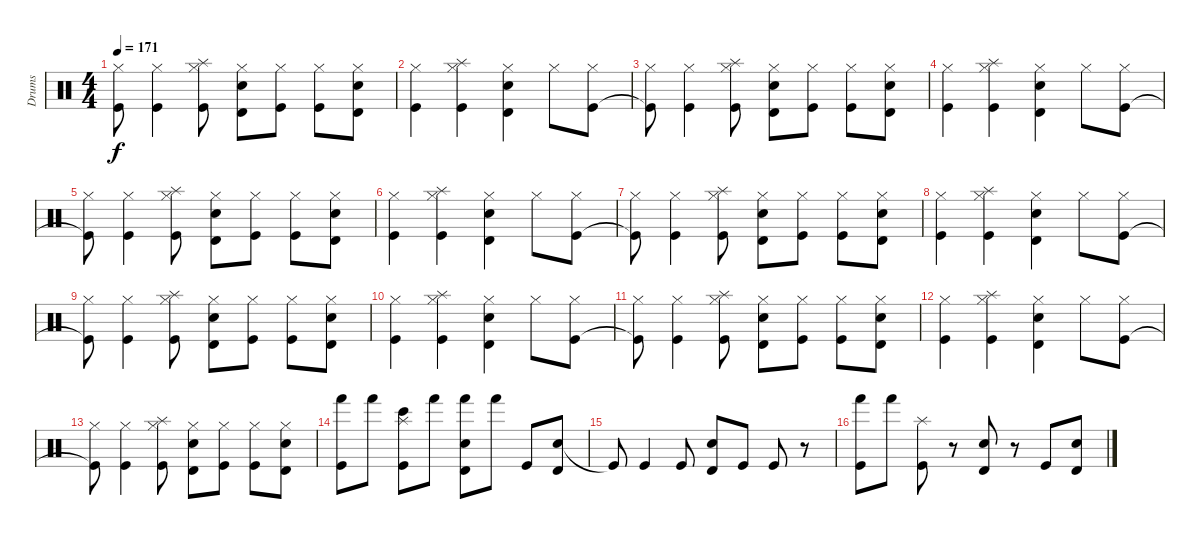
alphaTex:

\track ("Drums" "Drums") {instrument percussion}
\staff {score}
\articulation defaults
\ts (4 4)
\tempo 171
\clef neutral
\ks c
("Hi-Hat (closed)" "Kick (hit)"{t}).8{dy f} ("Hi-Hat (closed)" "Kick (hit)").4 ("Hi-Hat (closed)" "Splash (hit)" "Kick (hit)").8 ("Hi-Hat (closed)" "Timbale high (hit)" "Electric Snare (hit)").8 ("Hi-Hat (closed)" "Kick (hit)").8 ("Hi-Hat (closed)" "Kick (hit)").8 ("Hi-Hat (closed)" "Timbale high (hit)" "Electric Snare (hit)").8 |
("Hi-Hat (closed)" "Kick (hit)").4 ("Hi-Hat (closed)" "Splash (hit)" "Kick (hit)").4 ("Hi-Hat (closed)" "Timbale high (hit)" "Electric Snare (hit)").4 "Hi-Hat (closed)".8 ("Hi-Hat (closed)" "Kick (hit)").8 |
("Hi-Hat (closed)" "Kick (hit)"{t}).8 ("Hi-Hat (closed)" "Kick (hit)").4 ("Hi-Hat (closed)" "Splash (hit)" "Kick (hit)").8 ("Hi-Hat (closed)" "Timbale high (hit)" "Electric Snare (hit)").8 ("Hi-Hat (closed)" "Kick (hit)").8 ("Hi-Hat (closed)" "Kick (hit)").8 ("Hi-Hat (closed)" "Timbale high (hit)" "Electric Snare (hit)").8 |
("Hi-Hat (closed)" "Kick (hit)").4 ("Hi-Hat (closed)" "Splash (hit)" "Kick (hit)").4 ("Hi-Hat (closed)" "Timbale high (hit)" "Electric Snare (hit)").4 "Hi-Hat (closed)".8 ("Hi-Hat (closed)" "Kick (hit)").8 |
("Hi-Hat (closed)" "Kick (hit)"{t}).8 ("Hi-Hat (closed)" "Kick (hit)").4 ("Hi-Hat (closed)" "Splash (hit)" "Kick (hit)").8 ("Hi-Hat (closed)" "Timbale high (hit)" "Electric Snare (hit)").8 ("Hi-Hat (closed)" "Kick (hit)").8 ("Hi-Hat (closed)" "Kick (hit)").8 ("Hi-Hat (closed)" "Timbale high (hit)" "Electric Snare (hit)").8 |
("Hi-Hat (closed)" "Kick (hit)").4 ("Hi-Hat (closed)" "Splash (hit)" "Kick (hit)").4 ("Hi-Hat (closed)" "Timbale high (hit)" "Electric Snare (hit)").4 "Hi-Hat (closed)".8 ("Hi-Hat (closed)" "Kick (hit)").8 |
("Hi-Hat (closed)" "Kick (hit)"{t}).8 ("Hi-Hat (closed)" "Kick (hit)").4 ("Hi-Hat (closed)" "Splash (hit)" "Kick (hit)").8 ("Hi-Hat (closed)" "Timbale high (hit)" "Electric Snare (hit)").8 ("Hi-Hat (closed)" "Kick (hit)").8 ("Hi-Hat (closed)" "Kick (hit)").8 ("Hi-Hat (closed)" "Timbale high (hit)" "Electric Snare (hit)").8 |
("Hi-Hat (closed)" "Kick (hit)").4 ("Hi-Hat (closed)" "Splash (hit)" "Kick (hit)").4 ("Hi-Hat (closed)" "Timbale high (hit)" "Electric Snare (hit)").4 "Hi-Hat (closed)".8 ("Hi-Hat (closed)" "Kick (hit)").8 |
("Hi-Hat (closed)" "Kick (hit)"{t}).8 ("Hi-Hat (closed)" "Kick (hit)").4 ("Hi-Hat (closed)" "Splash (hit)" "Kick (hit)").8 ("Hi-Hat (closed)" "Timbale high (hit)" "Electric Snare (hit)").8 ("Hi-Hat (closed)" "Kick (hit)").8 ("Hi-Hat (closed)" "Kick (hit)").8 ("Hi-Hat (closed)" "Timbale high (hit)" "Electric Snare (hit)").8 |
("Hi-Hat (closed)" "Kick (hit)").4 ("Hi-Hat (closed)" "Splash (hit)" "Kick (hit)").4 ("Hi-Hat (closed)" "Timbale high (hit)" "Electric Snare (hit)").4 "Hi-Hat (closed)".8 ("Hi-Hat (closed)" "Kick (hit)").8 |
("Hi-Hat (closed)" "Kick (hit)"{t}).8 ("Hi-Hat (closed)" "Kick (hit)").4 ("Hi-Hat (closed)" "Splash (hit)" "Kick (hit)").8 ("Hi-Hat (closed)" "Timbale high (hit)" "Electric Snare (hit)").8 ("Hi-Hat (closed)" "Kick (hit)").8 ("Hi-Hat (closed)" "Kick (hit)").8 ("Hi-Hat (closed)" "Timbale high (hit)" "Electric Snare (hit)").8 |
("Hi-Hat (closed)" "Kick (hit)").4 ("Hi-Hat (closed)" "Splash (hit)" "Kick (hit)").4 ("Hi-Hat (closed)" "Timbale high (hit)" "Electric Snare (hit)").4 "Hi-Hat (closed)".8 ("Hi-Hat (closed)" "Kick (hit)").8 |
("Hi-Hat (closed)" "Kick (hit)"{t}).8 ("Hi-Hat (closed)" "Kick (hit)").4 ("Hi-Hat (closed)" "Splash (hit)" "Kick (hit)").8 ("Hi-Hat (closed)" "Timbale high (hit)" "Electric Snare (hit)").8 ("Hi-Hat (closed)" "Kick (hit)").8 ("Hi-Hat (closed)" "Kick (hit)").8 ("Hi-Hat (closed)" "Timbale high (hit)" "Electric Snare (hit)").8 |
("Hand (hit)" "Kick (hit)").8 "Hand (hit)".8 ("Bongo High (hit)" "Splash (hit)" "Kick (hit)").8 "Hand (hit)".8 ("Hand (hit)" "Timbale high (hit)" "Electric Snare (hit)").8 "Hand (hit)".8 "Kick (hit)".8 ("Electric Snare (hit)" "Timbale high (hit)").8 |
"Kick (hit)"{t}.8 "Kick (hit)".4 "Kick (hit)".8 ("Timbale high (hit)" "Electric Snare (hit)").8 "Kick (hit)".8 "Kick (hit)".8 r.8 |
("Hand (hit)" "Kick (hit)").8 "Hand (hit)".8 ("Splash (hit)" "Kick (hit)").8 r.8 ("Timbale high (hit)" "Electric Snare (hit)").8 r.8 "Kick (hit)".8 ("Electric Snare (hit)" "Timbale high (hit)").8
